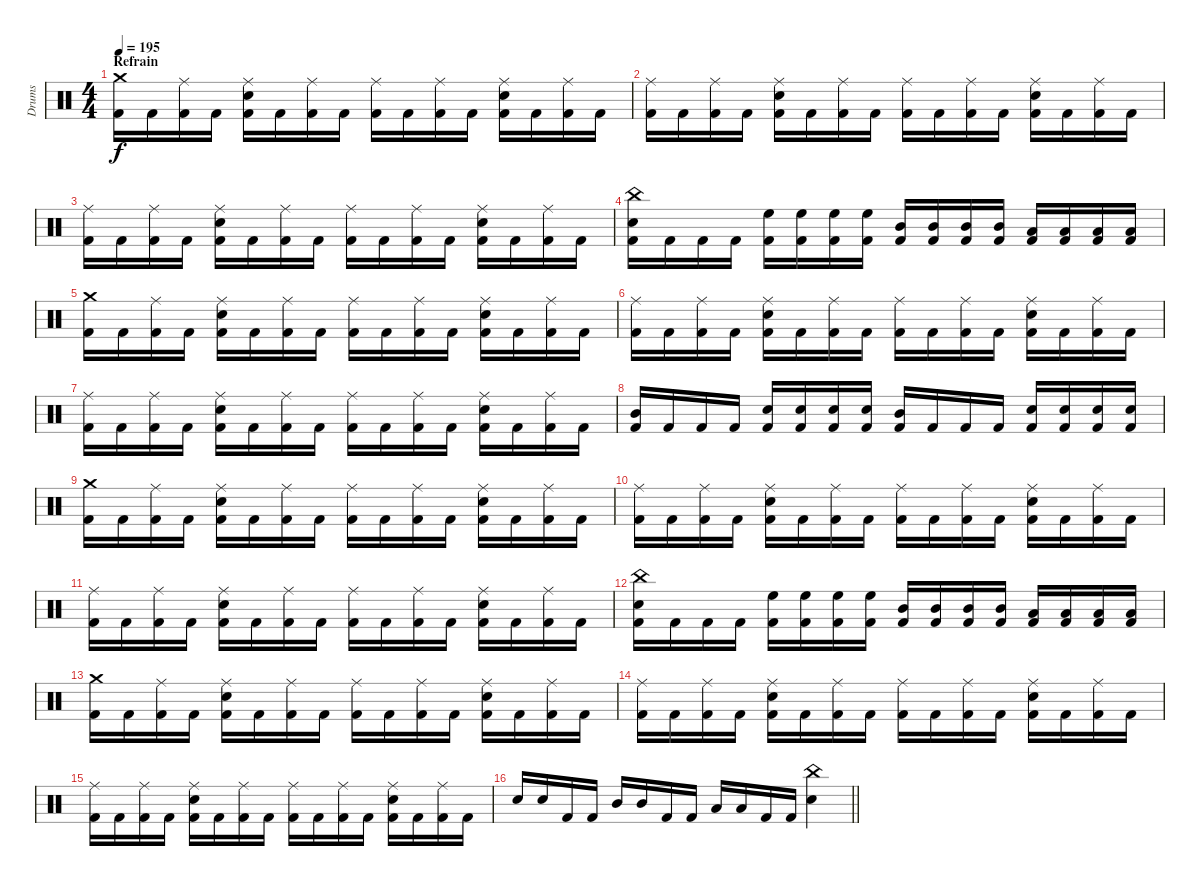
\track ("Drums" "Drums") {instrument percussion}
\staff {score}
\articulation defaults
\ts (4 4)
\section ("" "Refrain")
\tempo 195
\clef neutral
\ks c
("Crash medium (hit)" "Kick (hit) 2").16{dy f} "Kick (hit) 2".16 ("Ride (middle)" "Kick (hit) 2").16 "Kick (hit) 2".16 ("Ride (middle)" "Snare (hit) 2" "Kick (hit) 2").16 "Kick (hit) 2".16 ("Ride (middle)" "Kick (hit) 2").16 "Kick (hit) 2".16 ("Ride (middle)" "Kick (hit) 2").16 "Kick (hit) 2".16 ("Ride (middle)" "Kick (hit) 2").16 "Kick (hit) 2".16 ("Ride (middle)" "Snare (hit) 2" "Kick (hit) 2").16 "Kick (hit) 2".16 ("Ride (middle)" "Kick (hit) 2").16 "Kick (hit) 2".16 |
("Ride (middle)" "Kick (hit) 2").16 "Kick (hit) 2".16 ("Ride (middle)" "Kick (hit) 2").16 "Kick (hit) 2".16 ("Ride (middle)" "Snare (hit) 2" "Kick (hit) 2").16 "Kick (hit) 2".16 ("Ride (middle)" "Kick (hit) 2").16 "Kick (hit) 2".16 ("Ride (middle)" "Kick (hit) 2").16 "Kick (hit) 2".16 ("Ride (middle)" "Kick (hit) 2").16 "Kick (hit) 2".16 ("Ride (middle)" "Snare (hit) 2" "Kick (hit) 2").16 "Kick (hit) 2".16 ("Ride (middle)" "Kick (hit) 2").16 "Kick (hit) 2".16 |
("Ride (middle)" "Kick (hit) 2").16 "Kick (hit) 2".16 ("Ride (middle)" "Kick (hit) 2").16 "Kick (hit) 2".16 ("Ride (middle)" "Snare (hit) 2" "Kick (hit) 2").16 "Kick (hit) 2".16 ("Ride (middle)" "Kick (hit) 2").16 "Kick (hit) 2".16 ("Ride (middle)" "Kick (hit) 2").16 "Kick (hit) 2".16 ("Ride (middle)" "Kick (hit) 2").16 "Kick (hit) 2".16 ("Ride (middle)" "Snare (hit) 2" "Kick (hit) 2").16 "Kick (hit) 2".16 ("Ride (middle)" "Kick (hit) 2").16 "Kick (hit) 2".16 |
("China (hit)" "Snare (hit) 2" "Kick (hit) 2").16 "Kick (hit) 2".16 "Kick (hit) 2".16 "Kick (hit) 2".16 ("High Floor Tom (hit)" "Kick (hit) 2").16 ("High Floor Tom (hit)" "Kick (hit) 2").16 ("High Floor Tom (hit)" "Kick (hit) 2").16 ("High Floor Tom (hit)" "Kick (hit) 2").16 ("Mid Tom (hit)" "Kick (hit) 2").16 ("Mid Tom (hit)" "Kick (hit) 2").16 ("Mid Tom (hit)" "Kick (hit) 2").16 ("Mid Tom (hit)" "Kick (hit) 2").16 ("Low Tom (hit)" "Kick (hit) 2").16 ("Low Tom (hit)" "Kick (hit) 2").16 ("Low Tom (hit)" "Kick (hit) 2").16 ("Low Tom (hit)" "Kick (hit) 2").16 |
("Crash medium (hit)" "Kick (hit) 2").16 "Kick (hit) 2".16 ("Ride (middle)" "Kick (hit) 2").16 "Kick (hit) 2".16 ("Ride (middle)" "Snare (hit) 2" "Kick (hit) 2").16 "Kick (hit) 2".16 ("Ride (middle)" "Kick (hit) 2").16 "Kick (hit) 2".16 ("Ride (middle)" "Kick (hit) 2").16 "Kick (hit) 2".16 ("Ride (middle)" "Kick (hit) 2").16 "Kick (hit) 2".16 ("Ride (middle)" "Snare (hit) 2" "Kick (hit) 2").16 "Kick (hit) 2".16 ("Ride (middle)" "Kick (hit) 2").16 "Kick (hit) 2".16 |
("Ride (middle)" "Kick (hit) 2").16 "Kick (hit) 2".16 ("Ride (middle)" "Kick (hit) 2").16 "Kick (hit) 2".16 ("Ride (middle)" "Snare (hit) 2" "Kick (hit) 2").16 "Kick (hit) 2".16 ("Ride (middle)" "Kick (hit) 2").16 "Kick (hit) 2".16 ("Ride (middle)" "Kick (hit) 2").16 "Kick (hit) 2".16 ("Ride (middle)" "Kick (hit) 2").16 "Kick (hit) 2".16 ("Ride (middle)" "Snare (hit) 2" "Kick (hit) 2").16 "Kick (hit) 2".16 ("Ride (middle)" "Kick (hit) 2").16 "Kick (hit) 2".16 |
("Ride (middle)" "Kick (hit) 2").16 "Kick (hit) 2".16 ("Ride (middle)" "Kick (hit) 2").16 "Kick (hit) 2".16 ("Ride (middle)" "Snare (hit) 2" "Kick (hit) 2").16 "Kick (hit) 2".16 ("Ride (middle)" "Kick (hit) 2").16 "Kick (hit) 2".16 ("Ride (middle)" "Kick (hit) 2").16 "Kick (hit) 2".16 ("Ride (middle)" "Kick (hit) 2").16 "Kick (hit) 2".16 ("Ride (middle)" "Snare (hit) 2" "Kick (hit) 2").16 "Kick (hit) 2".16 ("Ride (middle)" "Kick (hit) 2").16 "Kick (hit) 2".16 |
("Mid Tom (hit)" "Kick (hit) 2").16 "Kick (hit) 2".16 "Kick (hit) 2".16 "Kick (hit) 2".16 ("Snare (hit) 2" "Kick (hit) 2").16 ("Snare (hit) 2" "Kick (hit) 2").16 ("Snare (hit) 2" "Kick (hit) 2").16 ("Snare (hit) 2" "Kick (hit) 2").16 ("Mid Tom (hit)" "Kick (hit) 2").16 "Kick (hit) 2".16 "Kick (hit) 2".16 "Kick (hit) 2".16 ("Snare (hit) 2" "Kick (hit) 2").16 ("Snare (hit) 2" "Kick (hit) 2").16 ("Snare (hit) 2" "Kick (hit) 2").16 ("Snare (hit) 2" "Kick (hit) 2").16 |
("Crash medium (hit)" "Kick (hit) 2").16 "Kick (hit) 2".16 ("Ride (middle)" "Kick (hit) 2").16 "Kick (hit) 2".16 ("Ride (middle)" "Snare (hit) 2" "Kick (hit) 2").16 "Kick (hit) 2".16 ("Ride (middle)" "Kick (hit) 2").16 "Kick (hit) 2".16 ("Ride (middle)" "Kick (hit) 2").16 "Kick (hit) 2".16 ("Ride (middle)" "Kick (hit) 2").16 "Kick (hit) 2".16 ("Ride (middle)" "Snare (hit) 2" "Kick (hit) 2").16 "Kick (hit) 2".16 ("Ride (middle)" "Kick (hit) 2").16 "Kick (hit) 2".16 |
("Ride (middle)" "Kick (hit) 2").16 "Kick (hit) 2".16 ("Ride (middle)" "Kick (hit) 2").16 "Kick (hit) 2".16 ("Ride (middle)" "Snare (hit) 2" "Kick (hit) 2").16 "Kick (hit) 2".16 ("Ride (middle)" "Kick (hit) 2").16 "Kick (hit) 2".16 ("Ride (middle)" "Kick (hit) 2").16 "Kick (hit) 2".16 ("Ride (middle)" "Kick (hit) 2").16 "Kick (hit) 2".16 ("Ride (middle)" "Snare (hit) 2" "Kick (hit) 2").16 "Kick (hit) 2".16 ("Ride (middle)" "Kick (hit) 2").16 "Kick (hit) 2".16 |
("Ride (middle)" "Kick (hit) 2").16 "Kick (hit) 2".16 ("Ride (middle)" "Kick (hit) 2").16 "Kick (hit) 2".16 ("Ride (middle)" "Snare (hit) 2" "Kick (hit) 2").16 "Kick (hit) 2".16 ("Ride (middle)" "Kick (hit) 2").16 "Kick (hit) 2".16 ("Ride (middle)" "Kick (hit) 2").16 "Kick (hit) 2".16 ("Ride (middle)" "Kick (hit) 2").16 "Kick (hit) 2".16 ("Ride (middle)" "Snare (hit) 2" "Kick (hit) 2").16 "Kick (hit) 2".16 ("Ride (middle)" "Kick (hit) 2").16 "Kick (hit) 2".16 |
("China (hit)" "Snare (hit) 2" "Kick (hit) 2").16 "Kick (hit) 2".16 "Kick (hit) 2".16 "Kick (hit) 2".16 ("High Floor Tom (hit)" "Kick (hit) 2").16 ("High Floor Tom (hit)" "Kick (hit) 2").16 ("High Floor Tom (hit)" "Kick (hit) 2").16 ("High Floor Tom (hit)" "Kick (hit) 2").16 ("Mid Tom (hit)" "Kick (hit) 2").16 ("Mid Tom (hit)" "Kick (hit) 2").16 ("Mid Tom (hit)" "Kick (hit) 2").16 ("Mid Tom (hit)" "Kick (hit) 2").16 ("Low Tom (hit)" "Kick (hit) 2").16 ("Low Tom (hit)" "Kick (hit) 2").16 ("Low Tom (hit)" "Kick (hit) 2").16 ("Low Tom (hit)" "Kick (hit) 2").16 |
("Crash medium (hit)" "Kick (hit) 2").16 "Kick (hit) 2".16 ("Ride (middle)" "Kick (hit) 2").16 "Kick (hit) 2".16 ("Ride (middle)" "Snare (hit) 2" "Kick (hit) 2").16 "Kick (hit) 2".16 ("Ride (middle)" "Kick (hit) 2").16 "Kick (hit) 2".16 ("Ride (middle)" "Kick (hit) 2").16 "Kick (hit) 2".16 ("Ride (middle)" "Kick (hit) 2").16 "Kick (hit) 2".16 ("Ride (middle)" "Snare (hit) 2" "Kick (hit) 2").16 "Kick (hit) 2".16 ("Ride (middle)" "Kick (hit) 2").16 "Kick (hit) 2".16 |
("Ride (middle)" "Kick (hit) 2").16 "Kick (hit) 2".16 ("Ride (middle)" "Kick (hit) 2").16 "Kick (hit) 2".16 ("Ride (middle)" "Snare (hit) 2" "Kick (hit) 2").16 "Kick (hit) 2".16 ("Ride (middle)" "Kick (hit) 2").16 "Kick (hit) 2".16 ("Ride (middle)" "Kick (hit) 2").16 "Kick (hit) 2".16 ("Ride (middle)" "Kick (hit) 2").16 "Kick (hit) 2".16 ("Ride (middle)" "Snare (hit) 2" "Kick (hit) 2").16 "Kick (hit) 2".16 ("Ride (middle)" "Kick (hit) 2").16 "Kick (hit) 2".16 |
("Ride (middle)" "Kick (hit) 2").16 "Kick (hit) 2".16 ("Ride (middle)" "Kick (hit) 2").16 "Kick (hit) 2".16 ("Ride (middle)" "Snare (hit) 2" "Kick (hit) 2").16 "Kick (hit) 2".16 ("Ride (middle)" "Kick (hit) 2").16 "Kick (hit) 2".16 ("Ride (middle)" "Kick (hit) 2").16 "Kick (hit) 2".16 ("Ride (middle)" "Kick (hit) 2").16 "Kick (hit) 2".16 ("Ride (middle)" "Snare (hit) 2" "Kick (hit) 2").16 "Kick (hit) 2".16 ("Ride (middle)" "Kick (hit) 2").16 "Kick (hit) 2".16 |
\barLineRight lightlight "Snare (hit) 2".16 "Snare (hit) 2".16 "Kick (hit) 2".16 "Kick (hit) 2".16 "Mid Tom (hit)".16 "Mid Tom (hit)".16 "Kick (hit) 2".16 "Kick (hit) 2".16 "Low Tom (hit)".16 "Low Tom (hit)".16 "Kick (hit) 2".16 "Kick (hit) 2".16
("China (hit)" "Snare (hit) 2").4
